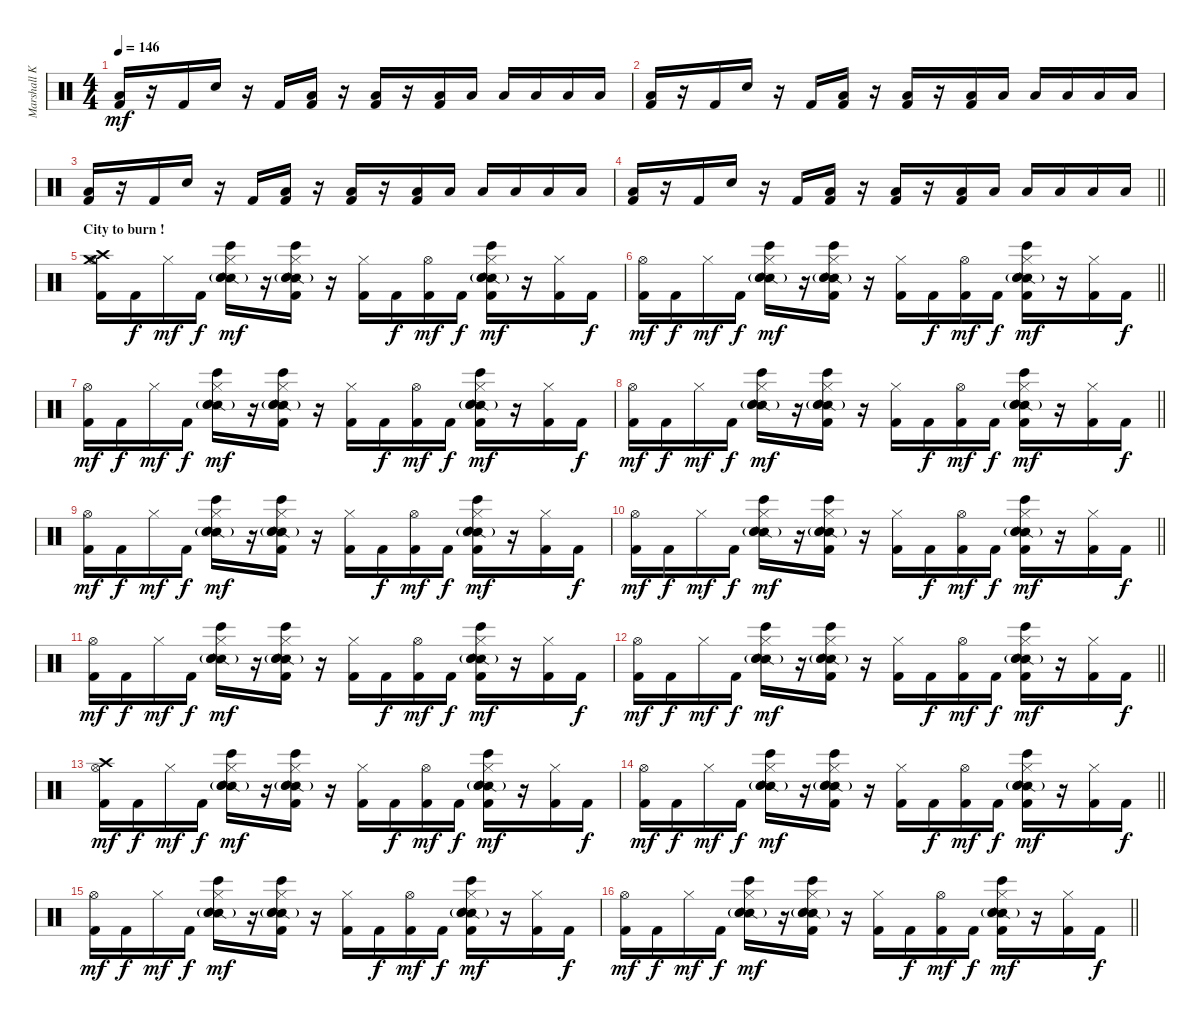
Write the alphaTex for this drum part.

\track ("Marshall Kilpatric" "Marshall K") {instrument percussion}
\staff {score}
\articulation defaults
\ts (4 4)
\tempo 146
\clef neutral
\ks c
("Low Floor Tom (hit)" "Kick (hit) 2").16{dy mf} r.16 "Kick (hit) 2".16 "Electric Snare (hit)".16 r.16 "Kick (hit) 2".16 ("Low Floor Tom (hit)" "Kick (hit) 2").16 r.16 ("Low Floor Tom (hit)" "Kick (hit) 2").16 r.16 ("Low Floor Tom (hit)" "Kick (hit) 2").16 "Low Floor Tom (hit)".16 "Low Floor Tom (hit)".16 "Low Floor Tom (hit)".16 "Low Floor Tom (hit)".16 "Low Floor Tom (hit)".16 |
("Low Floor Tom (hit)" "Kick (hit) 2").16 r.16 "Kick (hit) 2".16 "Electric Snare (hit)".16 r.16 "Kick (hit) 2".16 ("Low Floor Tom (hit)" "Kick (hit) 2").16 r.16 ("Low Floor Tom (hit)" "Kick (hit) 2").16 r.16 ("Low Floor Tom (hit)" "Kick (hit) 2").16 "Low Floor Tom (hit)".16 "Low Floor Tom (hit)".16 "Low Floor Tom (hit)".16 "Low Floor Tom (hit)".16 "Low Floor Tom (hit)".16 |
("Low Floor Tom (hit)" "Kick (hit) 2").16 r.16 "Kick (hit) 2".16 "Electric Snare (hit)".16 r.16 "Kick (hit) 2".16 ("Low Floor Tom (hit)" "Kick (hit) 2").16 r.16 ("Low Floor Tom (hit)" "Kick (hit) 2").16 r.16 ("Low Floor Tom (hit)" "Kick (hit) 2").16 "Low Floor Tom (hit)".16 "Low Floor Tom (hit)".16 "Low Floor Tom (hit)".16 "Low Floor Tom (hit)".16 "Low Floor Tom (hit)".16 |
\barLineRight lightlight
("Low Floor Tom (hit)" "Kick (hit) 2").16 r.16 "Kick (hit) 2".16 "Electric Snare (hit)".16 r.16 "Kick (hit) 2".16 ("Low Floor Tom (hit)" "Kick (hit) 2").16 r.16 ("Low Floor Tom (hit)" "Kick (hit) 2").16 r.16 ("Low Floor Tom (hit)" "Kick (hit) 2").16 "Low Floor Tom (hit)".16 "Low Floor Tom (hit)".16 "Low Floor Tom (hit)".16 "Low Floor Tom (hit)".16 "Low Floor Tom (hit)".16 |
\section ("" "City to burn !")
("Crash medium (hit)" "Crash high (hit)" "Hi-Hat (open)" "Kick (hit) 2").16 "Kick (hit) 2".16{dy f} "Hi-Hat (closed)".16{dy mf} "Kick (hit) 2".16{dy f} ("Snare (side stick) 2" "Snare (hit) 2"{g} "Bongo High (hit)" "Electric Snare (hit)" "Hi-Hat (closed)").16{dy mf} r.16 ("Snare (side stick) 2" "Snare (hit) 2"{g} "Bongo High (hit)" "Electric Snare (hit)" "Hi-Hat (closed)" "Kick (hit) 2").16 r.16 ("Hi-Hat (closed)" "Kick (hit) 2").16 "Kick (hit) 2".16{dy f} ("Hi-Hat (open)" "Kick (hit) 2").16{dy mf} "Kick (hit) 2".16{dy f} ("Snare (side stick) 2" "Snare (hit) 2"{g} "Bongo High (hit)" "Electric Snare (hit)" "Hi-Hat (closed)" "Kick (hit) 2").16{dy mf} r.16 ("Hi-Hat (closed)" "Kick (hit) 2").16 "Kick (hit) 2".16{dy f} |
\barLineRight lightlight
("Hi-Hat (open)" "Kick (hit) 2").16{dy mf} "Kick (hit) 2".16{dy f} "Hi-Hat (closed)".16{dy mf} "Kick (hit) 2".16{dy f} ("Snare (side stick) 2" "Snare (hit) 2"{g} "Bongo High (hit)" "Electric Snare (hit)" "Hi-Hat (closed)").16{dy mf} r.16 ("Snare (side stick) 2" "Snare (hit) 2"{g} "Bongo High (hit)" "Electric Snare (hit)" "Hi-Hat (closed)" "Kick (hit) 2").16 r.16 ("Hi-Hat (closed)" "Kick (hit) 2").16 "Kick (hit) 2".16{dy f} ("Hi-Hat (open)" "Kick (hit) 2").16{dy mf} "Kick (hit) 2".16{dy f} ("Snare (side stick) 2" "Snare (hit) 2"{g} "Bongo High (hit)" "Electric Snare (hit)" "Hi-Hat (closed)" "Kick (hit) 2").16{dy mf} r.16 ("Hi-Hat (closed)" "Kick (hit) 2").16 "Kick (hit) 2".16{dy f} |
("Hi-Hat (open)" "Kick (hit) 2").16{dy mf} "Kick (hit) 2".16{dy f} "Hi-Hat (closed)".16{dy mf} "Kick (hit) 2".16{dy f} ("Snare (side stick) 2" "Snare (hit) 2"{g} "Bongo High (hit)" "Electric Snare (hit)" "Hi-Hat (closed)").16{dy mf} r.16 ("Snare (side stick) 2" "Snare (hit) 2"{g} "Bongo High (hit)" "Electric Snare (hit)" "Hi-Hat (closed)" "Kick (hit) 2").16 r.16 ("Hi-Hat (closed)" "Kick (hit) 2").16 "Kick (hit) 2".16{dy f} ("Hi-Hat (open)" "Kick (hit) 2").16{dy mf} "Kick (hit) 2".16{dy f} ("Snare (side stick) 2" "Snare (hit) 2"{g} "Bongo High (hit)" "Electric Snare (hit)" "Hi-Hat (closed)" "Kick (hit) 2").16{dy mf} r.16 ("Hi-Hat (closed)" "Kick (hit) 2").16 "Kick (hit) 2".16{dy f} |
\barLineRight lightlight
("Hi-Hat (open)" "Kick (hit) 2").16{dy mf} "Kick (hit) 2".16{dy f} "Hi-Hat (closed)".16{dy mf} "Kick (hit) 2".16{dy f} ("Snare (side stick) 2" "Snare (hit) 2"{g} "Bongo High (hit)" "Electric Snare (hit)" "Hi-Hat (closed)").16{dy mf} r.16 ("Snare (side stick) 2" "Snare (hit) 2"{g} "Bongo High (hit)" "Electric Snare (hit)" "Hi-Hat (closed)" "Kick (hit) 2").16 r.16 ("Hi-Hat (closed)" "Kick (hit) 2").16 "Kick (hit) 2".16{dy f} ("Hi-Hat (open)" "Kick (hit) 2").16{dy mf} "Kick (hit) 2".16{dy f} ("Snare (side stick) 2" "Snare (hit) 2"{g} "Bongo High (hit)" "Electric Snare (hit)" "Hi-Hat (closed)" "Kick (hit) 2").16{dy mf} r.16 ("Hi-Hat (closed)" "Kick (hit) 2").16 "Kick (hit) 2".16{dy f} |
("Hi-Hat (open)" "Kick (hit) 2").16{dy mf} "Kick (hit) 2".16{dy f} "Hi-Hat (closed)".16{dy mf} "Kick (hit) 2".16{dy f} ("Snare (side stick) 2" "Snare (hit) 2"{g} "Bongo High (hit)" "Electric Snare (hit)" "Hi-Hat (closed)").16{dy mf} r.16 ("Snare (side stick) 2" "Snare (hit) 2"{g} "Bongo High (hit)" "Electric Snare (hit)" "Hi-Hat (closed)" "Kick (hit) 2").16 r.16 ("Hi-Hat (closed)" "Kick (hit) 2").16 "Kick (hit) 2".16{dy f} ("Hi-Hat (open)" "Kick (hit) 2").16{dy mf} "Kick (hit) 2".16{dy f} ("Snare (side stick) 2" "Snare (hit) 2"{g} "Bongo High (hit)" "Electric Snare (hit)" "Hi-Hat (closed)" "Kick (hit) 2").16{dy mf} r.16 ("Hi-Hat (closed)" "Kick (hit) 2").16 "Kick (hit) 2".16{dy f} |
\barLineRight lightlight
("Hi-Hat (open)" "Kick (hit) 2").16{dy mf} "Kick (hit) 2".16{dy f} "Hi-Hat (closed)".16{dy mf} "Kick (hit) 2".16{dy f} ("Snare (side stick) 2" "Snare (hit) 2"{g} "Bongo High (hit)" "Electric Snare (hit)" "Hi-Hat (closed)").16{dy mf} r.16 ("Snare (side stick) 2" "Snare (hit) 2"{g} "Bongo High (hit)" "Electric Snare (hit)" "Hi-Hat (closed)" "Kick (hit) 2").16 r.16 ("Hi-Hat (closed)" "Kick (hit) 2").16 "Kick (hit) 2".16{dy f} ("Hi-Hat (open)" "Kick (hit) 2").16{dy mf} "Kick (hit) 2".16{dy f} ("Snare (side stick) 2" "Snare (hit) 2"{g} "Bongo High (hit)" "Electric Snare (hit)" "Hi-Hat (closed)" "Kick (hit) 2").16{dy mf} r.16 ("Hi-Hat (closed)" "Kick (hit) 2").16 "Kick (hit) 2".16{dy f} |
("Hi-Hat (open)" "Kick (hit) 2").16{dy mf} "Kick (hit) 2".16{dy f} "Hi-Hat (closed)".16{dy mf} "Kick (hit) 2".16{dy f} ("Snare (side stick) 2" "Snare (hit) 2"{g} "Bongo High (hit)" "Electric Snare (hit)" "Hi-Hat (closed)").16{dy mf} r.16 ("Snare (side stick) 2" "Snare (hit) 2"{g} "Bongo High (hit)" "Electric Snare (hit)" "Hi-Hat (closed)" "Kick (hit) 2").16 r.16 ("Hi-Hat (closed)" "Kick (hit) 2").16 "Kick (hit) 2".16{dy f} ("Hi-Hat (open)" "Kick (hit) 2").16{dy mf} "Kick (hit) 2".16{dy f} ("Snare (side stick) 2" "Snare (hit) 2"{g} "Bongo High (hit)" "Electric Snare (hit)" "Hi-Hat (closed)" "Kick (hit) 2").16{dy mf} r.16 ("Hi-Hat (closed)" "Kick (hit) 2").16 "Kick (hit) 2".16{dy f} |
\barLineRight lightlight
("Hi-Hat (open)" "Kick (hit) 2").16{dy mf} "Kick (hit) 2".16{dy f} "Hi-Hat (closed)".16{dy mf} "Kick (hit) 2".16{dy f} ("Snare (side stick) 2" "Snare (hit) 2"{g} "Bongo High (hit)" "Electric Snare (hit)" "Hi-Hat (closed)").16{dy mf} r.16 ("Snare (side stick) 2" "Snare (hit) 2"{g} "Bongo High (hit)" "Electric Snare (hit)" "Hi-Hat (closed)" "Kick (hit) 2").16 r.16 ("Hi-Hat (closed)" "Kick (hit) 2").16 "Kick (hit) 2".16{dy f} ("Hi-Hat (open)" "Kick (hit) 2").16{dy mf} "Kick (hit) 2".16{dy f} ("Snare (side stick) 2" "Snare (hit) 2"{g} "Bongo High (hit)" "Electric Snare (hit)" "Hi-Hat (closed)" "Kick (hit) 2").16{dy mf} r.16 ("Hi-Hat (closed)" "Kick (hit) 2").16 "Kick (hit) 2".16{dy f} |
("Crash high (hit)" "Hi-Hat (open)" "Kick (hit) 2").16{dy mf} "Kick (hit) 2".16{dy f} "Hi-Hat (closed)".16{dy mf} "Kick (hit) 2".16{dy f} ("Snare (side stick) 2" "Snare (hit) 2"{g} "Bongo High (hit)" "Electric Snare (hit)" "Hi-Hat (closed)").16{dy mf} r.16 ("Snare (side stick) 2" "Snare (hit) 2"{g} "Bongo High (hit)" "Electric Snare (hit)" "Hi-Hat (closed)" "Kick (hit) 2").16 r.16 ("Hi-Hat (closed)" "Kick (hit) 2").16 "Kick (hit) 2".16{dy f} ("Hi-Hat (open)" "Kick (hit) 2").16{dy mf} "Kick (hit) 2".16{dy f} ("Snare (side stick) 2" "Snare (hit) 2"{g} "Bongo High (hit)" "Electric Snare (hit)" "Hi-Hat (closed)" "Kick (hit) 2").16{dy mf} r.16 ("Hi-Hat (closed)" "Kick (hit) 2").16 "Kick (hit) 2".16{dy f} |
\barLineRight lightlight
("Hi-Hat (open)" "Kick (hit) 2").16{dy mf} "Kick (hit) 2".16{dy f} "Hi-Hat (closed)".16{dy mf} "Kick (hit) 2".16{dy f} ("Snare (side stick) 2" "Snare (hit) 2"{g} "Bongo High (hit)" "Electric Snare (hit)" "Hi-Hat (closed)").16{dy mf} r.16 ("Snare (side stick) 2" "Snare (hit) 2"{g} "Bongo High (hit)" "Electric Snare (hit)" "Hi-Hat (closed)" "Kick (hit) 2").16 r.16 ("Hi-Hat (closed)" "Kick (hit) 2").16 "Kick (hit) 2".16{dy f} ("Hi-Hat (open)" "Kick (hit) 2").16{dy mf} "Kick (hit) 2".16{dy f} ("Snare (side stick) 2" "Snare (hit) 2"{g} "Bongo High (hit)" "Electric Snare (hit)" "Hi-Hat (closed)" "Kick (hit) 2").16{dy mf} r.16 ("Hi-Hat (closed)" "Kick (hit) 2").16 "Kick (hit) 2".16{dy f} |
("Hi-Hat (open)" "Kick (hit) 2").16{dy mf} "Kick (hit) 2".16{dy f} "Hi-Hat (closed)".16{dy mf} "Kick (hit) 2".16{dy f} ("Snare (side stick) 2" "Snare (hit) 2"{g} "Bongo High (hit)" "Electric Snare (hit)" "Hi-Hat (closed)").16{dy mf} r.16 ("Snare (side stick) 2" "Snare (hit) 2"{g} "Bongo High (hit)" "Electric Snare (hit)" "Hi-Hat (closed)" "Kick (hit) 2").16 r.16 ("Hi-Hat (closed)" "Kick (hit) 2").16 "Kick (hit) 2".16{dy f} ("Hi-Hat (open)" "Kick (hit) 2").16{dy mf} "Kick (hit) 2".16{dy f} ("Snare (side stick) 2" "Snare (hit) 2"{g} "Bongo High (hit)" "Electric Snare (hit)" "Hi-Hat (closed)" "Kick (hit) 2").16{dy mf} r.16 ("Hi-Hat (closed)" "Kick (hit) 2").16 "Kick (hit) 2".16{dy f} |
\barLineRight lightlight
("Hi-Hat (open)" "Kick (hit) 2").16{dy mf} "Kick (hit) 2".16{dy f} "Hi-Hat (closed)".16{dy mf} "Kick (hit) 2".16{dy f} ("Snare (side stick) 2" "Snare (hit) 2"{g} "Bongo High (hit)" "Electric Snare (hit)" "Hi-Hat (closed)").16{dy mf} r.16 ("Snare (side stick) 2" "Snare (hit) 2"{g} "Bongo High (hit)" "Electric Snare (hit)" "Hi-Hat (closed)" "Kick (hit) 2").16 r.16 ("Hi-Hat (closed)" "Kick (hit) 2").16 "Kick (hit) 2".16{dy f} ("Hi-Hat (open)" "Kick (hit) 2").16{dy mf} "Kick (hit) 2".16{dy f} ("Snare (side stick) 2" "Snare (hit) 2"{g} "Bongo High (hit)" "Electric Snare (hit)" "Hi-Hat (closed)" "Kick (hit) 2").16{dy mf} r.16 ("Hi-Hat (closed)" "Kick (hit) 2").16 "Kick (hit) 2".16{dy f}
